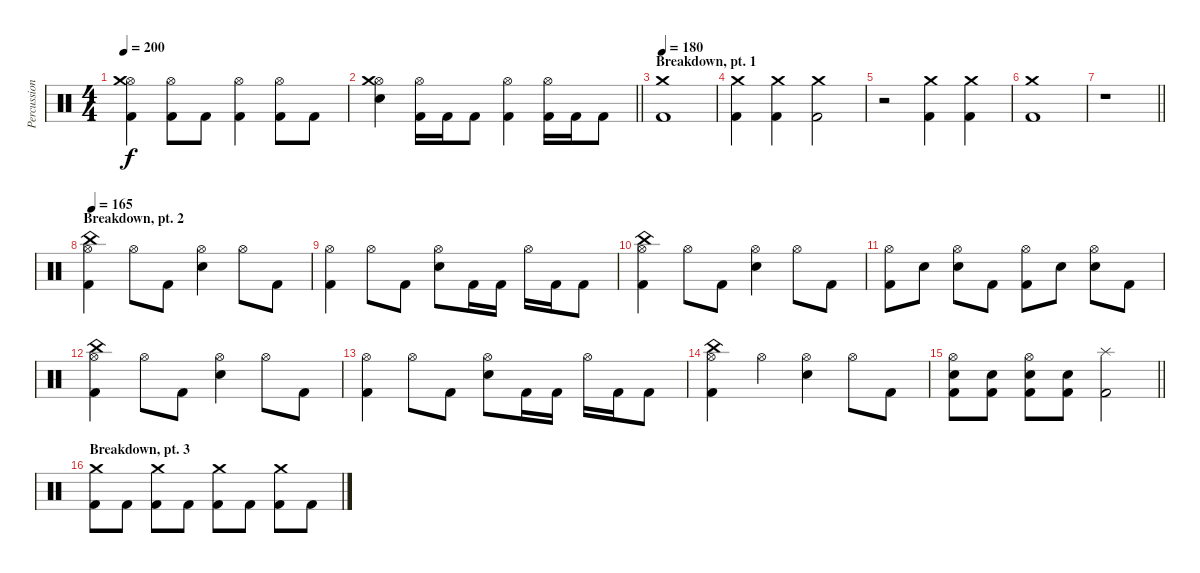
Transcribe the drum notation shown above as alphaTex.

\track ("Percussions" "Percussion") {instrument percussion}
\staff {score}
\articulation defaults
\ts (4 4)
\tempo 200
\clef neutral
\ks c
("Hi-Hat (open)" "Crash medium (hit)" "Kick (hit) 2").4{dy f} ("Hi-Hat (open)" "Kick (hit) 2").8 "Kick (hit) 2".8 ("Hi-Hat (open)" "Kick (hit) 2").4 ("Hi-Hat (open)" "Kick (hit) 2").8 "Kick (hit) 2".8 |
\barLineRight lightlight
("Hi-Hat (open)" "Crash medium (hit)" "Electric Snare (hit)").4 ("Hi-Hat (open)" "Kick (hit) 2").16 "Kick (hit) 2".16 "Kick (hit) 2".8 ("Hi-Hat (open)" "Kick (hit) 2").4 ("Hi-Hat (open)" "Kick (hit) 2").16 "Kick (hit) 2".16 "Kick (hit) 2".8 |
\section ("" "Breakdown, pt. 1")
\tempo 180
("Crash medium (hit)" "Kick (hit) 2").1 |
("Crash medium (hit)" "Kick (hit) 2").4 ("Crash medium (hit)" "Kick (hit) 2").4 ("Crash medium (hit)" "Kick (hit) 2").2 |
r.2 ("Crash medium (hit)" "Kick (hit) 2").4 ("Crash medium (hit)" "Kick (hit) 2").4 |
("Crash medium (hit)" "Kick (hit) 2").1 |
\barLineRight lightlight
r.1 |
\section ("" "Breakdown, pt. 2")
\tempo 165
("Hi-Hat (open)" "China (hit)" "Kick (hit) 2").4 "Hi-Hat (open)".8 "Kick (hit) 2".8 ("Hi-Hat (open)" "Electric Snare (hit)").4 "Hi-Hat (open)".8 "Kick (hit) 2".8 |
("Hi-Hat (open)" "Kick (hit) 2").4 "Hi-Hat (open)".8 "Kick (hit) 2".8 ("Hi-Hat (open)" "Electric Snare (hit)").8 "Kick (hit) 2".16 "Kick (hit) 2".16 "Hi-Hat (open)".16 "Kick (hit) 2".16 "Kick (hit) 2".8 |
("Hi-Hat (open)" "China (hit)" "Kick (hit) 2").4 "Hi-Hat (open)".8 "Kick (hit) 2".8 ("Hi-Hat (open)" "Electric Snare (hit)").4 "Hi-Hat (open)".8 "Kick (hit) 2".8 |
("Hi-Hat (open)" "Kick (hit) 2").8 "Electric Snare (hit)".8 ("Hi-Hat (open)" "Electric Snare (hit)").8 "Kick (hit) 2".8 ("Hi-Hat (open)" "Kick (hit) 2").8 "Electric Snare (hit)".8 ("Hi-Hat (open)" "Electric Snare (hit)").8 "Kick (hit) 2".8 |
("Hi-Hat (open)" "China (hit)" "Kick (hit) 2").4 "Hi-Hat (open)".8 "Kick (hit) 2".8 ("Hi-Hat (open)" "Electric Snare (hit)").4 "Hi-Hat (open)".8 "Kick (hit) 2".8 |
("Hi-Hat (open)" "Kick (hit) 2").4 "Hi-Hat (open)".8 "Kick (hit) 2".8 ("Hi-Hat (open)" "Electric Snare (hit)").8 "Kick (hit) 2".16 "Kick (hit) 2".16 "Hi-Hat (open)".16 "Kick (hit) 2".16 "Kick (hit) 2".8 |
("Hi-Hat (open)" "China (hit)" "Kick (hit) 2").4 "Hi-Hat (open)".4 ("Hi-Hat (open)" "Electric Snare (hit)").4 "Hi-Hat (open)".8 "Kick (hit) 2".8 |
\barLineRight lightlight
("Hi-Hat (open)" "Electric Snare (hit)" "Kick (hit) 2").8 ("Electric Snare (hit)" "Kick (hit) 2").8 ("Hi-Hat (open)" "Electric Snare (hit)" "Kick (hit) 2").8 ("Electric Snare (hit)" "Kick (hit) 2").8 ("Splash (hit)" "Kick (hit) 2").2 |
\section ("" "Breakdown, pt. 3")
("Crash medium (hit)" "Kick (hit) 2").8 "Kick (hit) 2".8 ("Crash medium (hit)" "Kick (hit) 2").8 "Kick (hit) 2".8 ("Crash medium (hit)" "Kick (hit) 2").8 "Kick (hit) 2".8 ("Crash medium (hit)" "Kick (hit) 2").8 "Kick (hit) 2".8
